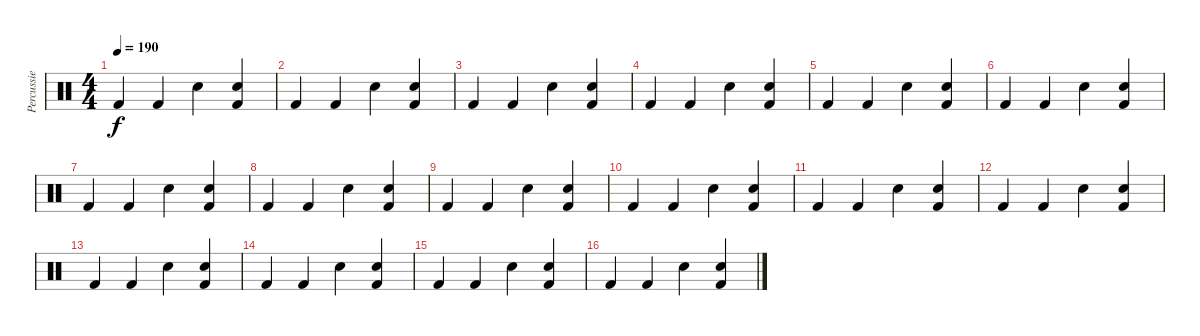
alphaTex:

\track ("Percussie" "Percussie") {instrument percussion}
\staff {score}
\articulation defaults
\ts (4 4)
\tempo 190
\clef neutral
\ks c "Kick (hit) 2".4{dy f} "Kick (hit) 2".4 "Snare (hit) 2".4
("Snare (hit) 2" "Kick (hit) 2").4 |
"Kick (hit) 2".4 "Kick (hit) 2".4 "Snare (hit) 2".4 ("Snare (hit) 2" "Kick (hit) 2").4 |
"Kick (hit) 2".4 "Kick (hit) 2".4 "Snare (hit) 2".4 ("Snare (hit) 2" "Kick (hit) 2").4 |
"Kick (hit) 2".4 "Kick (hit) 2".4 "Snare (hit) 2".4 ("Snare (hit) 2" "Kick (hit) 2").4 |
"Kick (hit) 2".4 "Kick (hit) 2".4 "Snare (hit) 2".4 ("Snare (hit) 2" "Kick (hit) 2").4 |
"Kick (hit) 2".4 "Kick (hit) 2".4 "Snare (hit) 2".4 ("Snare (hit) 2" "Kick (hit) 2").4 |
"Kick (hit) 2".4 "Kick (hit) 2".4 "Snare (hit) 2".4 ("Snare (hit) 2" "Kick (hit) 2").4 |
"Kick (hit) 2".4 "Kick (hit) 2".4 "Snare (hit) 2".4 ("Snare (hit) 2" "Kick (hit) 2").4 |
"Kick (hit) 2".4 "Kick (hit) 2".4 "Snare (hit) 2".4 ("Snare (hit) 2" "Kick (hit) 2").4 |
"Kick (hit) 2".4 "Kick (hit) 2".4 "Snare (hit) 2".4 ("Snare (hit) 2" "Kick (hit) 2").4 |
"Kick (hit) 2".4 "Kick (hit) 2".4 "Snare (hit) 2".4 ("Snare (hit) 2" "Kick (hit) 2").4 |
"Kick (hit) 2".4 "Kick (hit) 2".4 "Snare (hit) 2".4 ("Snare (hit) 2" "Kick (hit) 2").4 |
"Kick (hit) 2".4 "Kick (hit) 2".4 "Snare (hit) 2".4 ("Snare (hit) 2" "Kick (hit) 2").4 |
"Kick (hit) 2".4 "Kick (hit) 2".4 "Snare (hit) 2".4 ("Snare (hit) 2" "Kick (hit) 2").4 |
"Kick (hit) 2".4 "Kick (hit) 2".4 "Snare (hit) 2".4 ("Snare (hit) 2" "Kick (hit) 2").4 |
"Kick (hit) 2".4 "Kick (hit) 2".4 "Snare (hit) 2".4 ("Snare (hit) 2" "Kick (hit) 2").4
